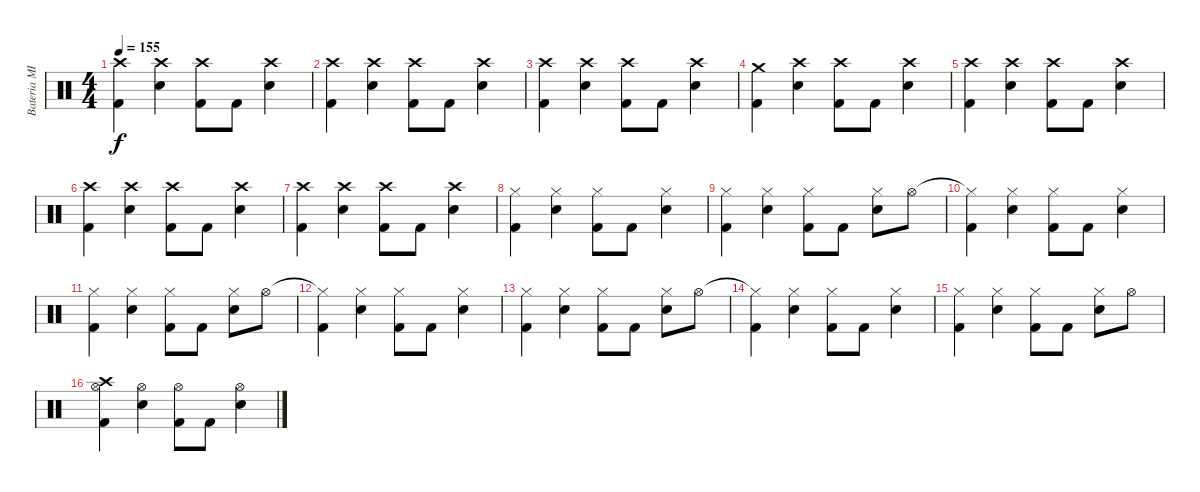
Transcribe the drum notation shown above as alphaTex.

\track ("Bateria MIDI" "Bateria MI") {instrument percussion bank 1}
\staff {score}
\articulation defaults
\ts (4 4)
\tempo 155
\clef neutral
\ks c
("Crash high (hit)" "Kick (hit) 2").4{dy f} ("Crash high (hit)" "Snare (hit) 2").4 ("Crash high (hit)" "Kick (hit) 2").8 "Kick (hit) 2".8 ("Crash high (hit)" "Snare (hit) 2").4 |
("Crash high (hit)" "Kick (hit) 2").4 ("Crash high (hit)" "Snare (hit) 2").4 ("Crash high (hit)" "Kick (hit) 2").8 "Kick (hit) 2".8 ("Crash high (hit)" "Snare (hit) 2").4 |
("Crash high (hit)" "Kick (hit) 2").4 ("Crash high (hit)" "Snare (hit) 2").4 ("Crash high (hit)" "Kick (hit) 2").8 "Kick (hit) 2".8 ("Crash high (hit)" "Snare (hit) 2").4 |
("Crash medium (hit)" "Kick (hit) 2").4 ("Crash high (hit)" "Snare (hit) 2").4 ("Crash high (hit)" "Kick (hit) 2").8 "Kick (hit) 2".8 ("Crash high (hit)" "Snare (hit) 2").4 |
("Crash high (hit)" "Kick (hit) 2").4 ("Crash high (hit)" "Snare (hit) 2").4 ("Crash high (hit)" "Kick (hit) 2").8 "Kick (hit) 2".8 ("Crash high (hit)" "Snare (hit) 2").4 |
("Crash high (hit)" "Kick (hit) 2").4 ("Crash high (hit)" "Snare (hit) 2").4 ("Crash high (hit)" "Kick (hit) 2").8 "Kick (hit) 2".8 ("Crash high (hit)" "Snare (hit) 2").4 |
("Crash high (hit)" "Kick (hit) 2").4 ("Crash high (hit)" "Snare (hit) 2").4 ("Crash high (hit)" "Kick (hit) 2").8 "Kick (hit) 2".8 ("Crash high (hit)" "Snare (hit) 2").4 |
("Hi-Hat (closed)" "Kick (hit) 2").4 ("Hi-Hat (closed)" "Snare (hit) 2").4 ("Hi-Hat (closed)" "Kick (hit) 2").8 "Kick (hit) 2".8 ("Hi-Hat (closed)" "Snare (hit) 2").4 |
("Hi-Hat (closed)" "Kick (hit) 2").4 ("Hi-Hat (closed)" "Snare (hit) 2").4 ("Hi-Hat (closed)" "Kick (hit) 2").8 "Kick (hit) 2".8 ("Hi-Hat (closed)" "Snare (hit) 2").8 "Hi-Hat (open)".8 |
("Hi-Hat (closed)"{t} "Kick (hit) 2").4 ("Hi-Hat (closed)" "Snare (hit) 2").4 ("Hi-Hat (closed)" "Kick (hit) 2").8 "Kick (hit) 2".8 ("Hi-Hat (closed)" "Snare (hit) 2").4 |
("Hi-Hat (closed)" "Kick (hit) 2").4 ("Hi-Hat (closed)" "Snare (hit) 2").4 ("Hi-Hat (closed)" "Kick (hit) 2").8 "Kick (hit) 2".8 ("Hi-Hat (closed)" "Snare (hit) 2").8 "Hi-Hat (open)".8 |
("Hi-Hat (closed)"{t} "Kick (hit) 2").4 ("Hi-Hat (closed)" "Snare (hit) 2").4 ("Hi-Hat (closed)" "Kick (hit) 2").8 "Kick (hit) 2".8 ("Hi-Hat (closed)" "Snare (hit) 2").4 |
("Hi-Hat (closed)" "Kick (hit) 2").4 ("Hi-Hat (closed)" "Snare (hit) 2").4 ("Hi-Hat (closed)" "Kick (hit) 2").8 "Kick (hit) 2".8 ("Hi-Hat (closed)" "Snare (hit) 2").8 "Hi-Hat (open)".8 |
("Hi-Hat (closed)"{t} "Kick (hit) 2").4 ("Hi-Hat (closed)" "Snare (hit) 2").4 ("Hi-Hat (closed)" "Kick (hit) 2").8 "Kick (hit) 2".8 ("Hi-Hat (closed)" "Snare (hit) 2").4 |
("Hi-Hat (closed)" "Kick (hit) 2").4 ("Hi-Hat (closed)" "Snare (hit) 2").4 ("Hi-Hat (closed)" "Kick (hit) 2").8 "Kick (hit) 2".8 ("Hi-Hat (closed)" "Snare (hit) 2").8 "Hi-Hat (open)".8 |
("Hi-Hat (open)" "Crash high (hit)" "Kick (hit) 2").4 ("Hi-Hat (open)" "Snare (hit) 2").4 ("Hi-Hat (open)" "Kick (hit) 2").8 "Kick (hit) 2".8 ("Hi-Hat (open)" "Snare (hit) 2").4
